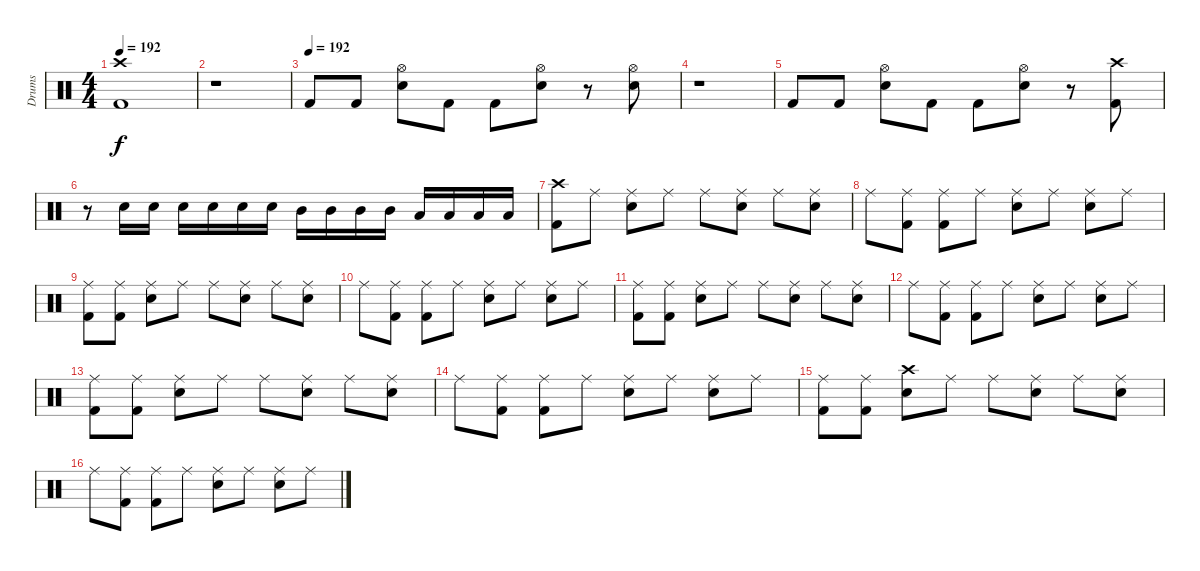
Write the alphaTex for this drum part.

\track ("Drums" "Drums") {instrument percussion}
\staff {score}
\articulation defaults
\ts (4 4)
\tempo 192
\clef neutral
\ks c
("Crash high (hit)" "Kick (hit) 2").1{dy f} |
r.1 |
\tempo (192)
"Kick (hit) 2".8 "Kick (hit) 2".8 ("Hi-Hat (open)" "Snare (hit) 2").8 "Kick (hit) 2".8 "Kick (hit) 2".8 ("Hi-Hat (open)" "Snare (hit) 2").8 r.8 ("Hi-Hat (open)" "Snare (hit) 2").8 |
r.1 |
"Kick (hit) 2".8 "Kick (hit) 2".8 ("Hi-Hat (open)" "Snare (hit) 2").8 "Kick (hit) 2".8 "Kick (hit) 2".8 ("Hi-Hat (open)" "Snare (hit) 2").8 r.8 ("Crash high (hit)" "Kick (hit) 2").8 |
r.8 "Snare (hit) 2".16 "Snare (hit) 2".16 "Snare (hit) 2".16 "Snare (hit) 2".16 "Snare (hit) 2".16 "Snare (hit) 2".16 "Mid Tom (hit)".16 "Mid Tom (hit)".16 "Mid Tom (hit)".16 "Mid Tom (hit)".16 "Low Tom (hit)".16 "Low Tom (hit)".16 "Low Tom (hit)".16 "Low Tom (hit)".16 |
("Crash high (hit)" "Kick (hit) 2").8 "Ride (middle)".8 ("Ride (middle)" "Snare (hit) 2").8 "Ride (middle)".8 "Ride (middle)".8 ("Ride (middle)" "Snare (hit) 2").8 "Ride (middle)".8 ("Ride (middle)" "Snare (hit) 2").8 |
"Ride (middle)".8 ("Ride (middle)" "Kick (hit) 2").8 ("Ride (middle)" "Kick (hit) 2").8 "Ride (middle)".8 ("Ride (middle)" "Snare (hit) 2").8 "Ride (middle)".8 ("Ride (middle)" "Snare (hit) 2").8 "Ride (middle)".8 |
("Ride (middle)" "Kick (hit) 2").8 ("Ride (middle)" "Kick (hit) 2").8 ("Ride (middle)" "Snare (hit) 2").8 "Ride (middle)".8 "Ride (middle)".8 ("Ride (middle)" "Snare (hit) 2").8 "Ride (middle)".8 ("Ride (middle)" "Snare (hit) 2").8 |
"Ride (middle)".8 ("Ride (middle)" "Kick (hit) 2").8 ("Ride (middle)" "Kick (hit) 2").8 "Ride (middle)".8 ("Ride (middle)" "Snare (hit) 2").8 "Ride (middle)".8 ("Ride (middle)" "Snare (hit) 2").8 "Ride (middle)".8 |
("Ride (middle)" "Kick (hit) 2").8 ("Ride (middle)" "Kick (hit) 2").8 ("Ride (middle)" "Snare (hit) 2").8 "Ride (middle)".8 "Ride (middle)".8 ("Ride (middle)" "Snare (hit) 2").8 "Ride (middle)".8 ("Ride (middle)" "Snare (hit) 2").8 |
"Ride (middle)".8 ("Ride (middle)" "Kick (hit) 2").8 ("Ride (middle)" "Kick (hit) 2").8 "Ride (middle)".8 ("Ride (middle)" "Snare (hit) 2").8 "Ride (middle)".8 ("Ride (middle)" "Snare (hit) 2").8 "Ride (middle)".8 |
("Ride (middle)" "Kick (hit) 2").8 ("Ride (middle)" "Kick (hit) 2").8 ("Ride (middle)" "Snare (hit) 2").8 "Ride (middle)".8 "Ride (middle)".8 ("Ride (middle)" "Snare (hit) 2").8 "Ride (middle)".8 ("Ride (middle)" "Snare (hit) 2").8 |
"Ride (middle)".8 ("Ride (middle)" "Kick (hit) 2").8 ("Ride (middle)" "Kick (hit) 2").8 "Ride (middle)".8 ("Ride (middle)" "Snare (hit) 2").8 "Ride (middle)".8 ("Ride (middle)" "Snare (hit) 2").8 "Ride (middle)".8 |
("Ride (middle)" "Kick (hit) 2").8 ("Ride (middle)" "Kick (hit) 2").8 ("Crash high (hit)" "Snare (hit) 2").8 "Ride (middle)".8 "Ride (middle)".8 ("Ride (middle)" "Snare (hit) 2").8 "Ride (middle)".8 ("Ride (middle)" "Snare (hit) 2").8 |
"Ride (middle)".8 ("Ride (middle)" "Kick (hit) 2").8 ("Ride (middle)" "Kick (hit) 2").8 "Ride (middle)".8 ("Ride (middle)" "Snare (hit) 2").8 "Ride (middle)".8 ("Ride (middle)" "Snare (hit) 2").8 "Ride (middle)".8
